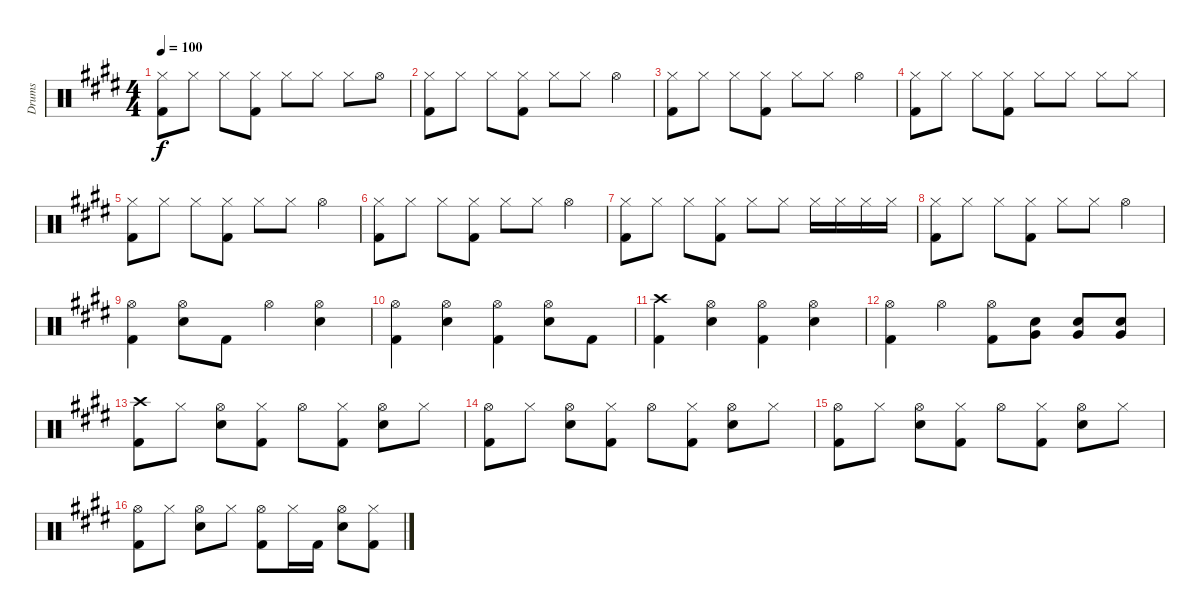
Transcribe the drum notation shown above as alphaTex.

\track ("Drums" "Drums") {instrument percussion}
\staff {score}
\articulation defaults
\ts (4 4)
\tempo 100
\clef neutral
\ks e
("Hi-Hat (closed)" "Kick (hit) 2").8{dy f} "Hi-Hat (closed)".8 "Hi-Hat (closed)".8 ("Hi-Hat (closed)" "Kick (hit) 2").8 "Hi-Hat (closed)".8 "Hi-Hat (closed)".8 "Hi-Hat (closed)".8 "Hi-Hat (open)".8 |
("Hi-Hat (closed)" "Kick (hit) 2").8 "Hi-Hat (closed)".8 "Hi-Hat (closed)".8 ("Hi-Hat (closed)" "Kick (hit) 2").8 "Hi-Hat (closed)".8 "Hi-Hat (closed)".8 "Hi-Hat (open)".4 |
("Hi-Hat (closed)" "Kick (hit) 2").8 "Hi-Hat (closed)".8 "Hi-Hat (closed)".8 ("Hi-Hat (closed)" "Kick (hit) 2").8 "Hi-Hat (closed)".8 "Hi-Hat (closed)".8 "Hi-Hat (open)".4 |
("Hi-Hat (closed)" "Kick (hit) 2").8 "Hi-Hat (closed)".8 "Hi-Hat (closed)".8 ("Hi-Hat (closed)" "Kick (hit) 2").8 "Hi-Hat (closed)".8 "Hi-Hat (closed)".8 "Hi-Hat (closed)".8 "Hi-Hat (closed)".8 |
("Hi-Hat (closed)" "Kick (hit) 2").8 "Hi-Hat (closed)".8 "Hi-Hat (closed)".8 ("Hi-Hat (closed)" "Kick (hit) 2").8 "Hi-Hat (closed)".8 "Hi-Hat (closed)".8 "Hi-Hat (open)".4 |
("Hi-Hat (closed)" "Kick (hit) 2").8 "Hi-Hat (closed)".8 "Hi-Hat (closed)".8 ("Hi-Hat (closed)" "Kick (hit) 2").8 "Hi-Hat (closed)".8 "Hi-Hat (closed)".8 "Hi-Hat (open)".4 |
("Hi-Hat (closed)" "Kick (hit) 2").8 "Hi-Hat (closed)".8 "Hi-Hat (closed)".8 ("Hi-Hat (closed)" "Kick (hit) 2").8 "Hi-Hat (closed)".8 "Hi-Hat (closed)".8 "Hi-Hat (closed)".16 "Hi-Hat (closed)".16 "Hi-Hat (closed)".16 "Hi-Hat (closed)".16 |
("Hi-Hat (closed)" "Kick (hit) 2").8 "Hi-Hat (closed)".8 "Hi-Hat (closed)".8 ("Hi-Hat (closed)" "Kick (hit) 2").8 "Hi-Hat (closed)".8 "Hi-Hat (closed)".8 "Hi-Hat (open)".4 |
("Hi-Hat (open)" "Kick (hit) 2").4 ("Hi-Hat (open)" "Electric Snare (hit)").8 "Kick (hit) 2".8 "Hi-Hat (open)".4 ("Hi-Hat (open)" "Electric Snare (hit)").4 |
("Hi-Hat (open)" "Kick (hit) 2").4 ("Hi-Hat (open)" "Electric Snare (hit)").4 ("Hi-Hat (open)" "Kick (hit) 2").4 ("Hi-Hat (open)" "Electric Snare (hit)").8 "Kick (hit) 2".8 |
("Crash high (hit)" "Kick (hit) 2").4 ("Hi-Hat (open)" "Electric Snare (hit)").4 ("Hi-Hat (open)" "Kick (hit) 2").4 ("Hi-Hat (open)" "Electric Snare (hit)").4 |
("Hi-Hat (open)" "Kick (hit) 2").4 "Hi-Hat (open)".4 ("Hi-Hat (open)" "Kick (hit) 2").8 ("Electric Snare (hit)" "Very Low Tom (hit)").8 ("Electric Snare (hit)" "Very Low Tom (hit)").8 ("Electric Snare (hit)" "Very Low Tom (hit)").8 |
("Crash high (hit)" "Kick (hit) 2").8 "Hi-Hat (closed)".8 ("Hi-Hat (open)" "Electric Snare (hit)").8 ("Hi-Hat (closed)" "Kick (hit) 2").8 "Hi-Hat (open)".8 ("Hi-Hat (closed)" "Kick (hit) 2").8 ("Hi-Hat (open)" "Electric Snare (hit)").8 "Hi-Hat (closed)".8 |
("Hi-Hat (open)" "Kick (hit) 2").8 "Hi-Hat (closed)".8 ("Hi-Hat (open)" "Electric Snare (hit)").8 ("Hi-Hat (closed)" "Kick (hit) 2").8 "Hi-Hat (open)".8 ("Hi-Hat (closed)" "Kick (hit) 2").8 ("Hi-Hat (open)" "Electric Snare (hit)").8 "Hi-Hat (closed)".8 |
("Hi-Hat (open)" "Kick (hit) 2").8 "Hi-Hat (closed)".8 ("Hi-Hat (open)" "Electric Snare (hit)").8 ("Hi-Hat (closed)" "Kick (hit) 2").8 "Hi-Hat (open)".8 ("Hi-Hat (closed)" "Kick (hit) 2").8 ("Hi-Hat (open)" "Electric Snare (hit)").8 "Hi-Hat (closed)".8 |
("Hi-Hat (open)" "Kick (hit) 2").8 "Hi-Hat (closed)".8 ("Hi-Hat (open)" "Electric Snare (hit)").8 "Hi-Hat (closed)".8 ("Hi-Hat (open)" "Kick (hit) 2").8 "Hi-Hat (closed)".16 "Kick (hit) 2".16 ("Hi-Hat (open)" "Electric Snare (hit)").8 ("Hi-Hat (closed)" "Kick (hit) 2").8
